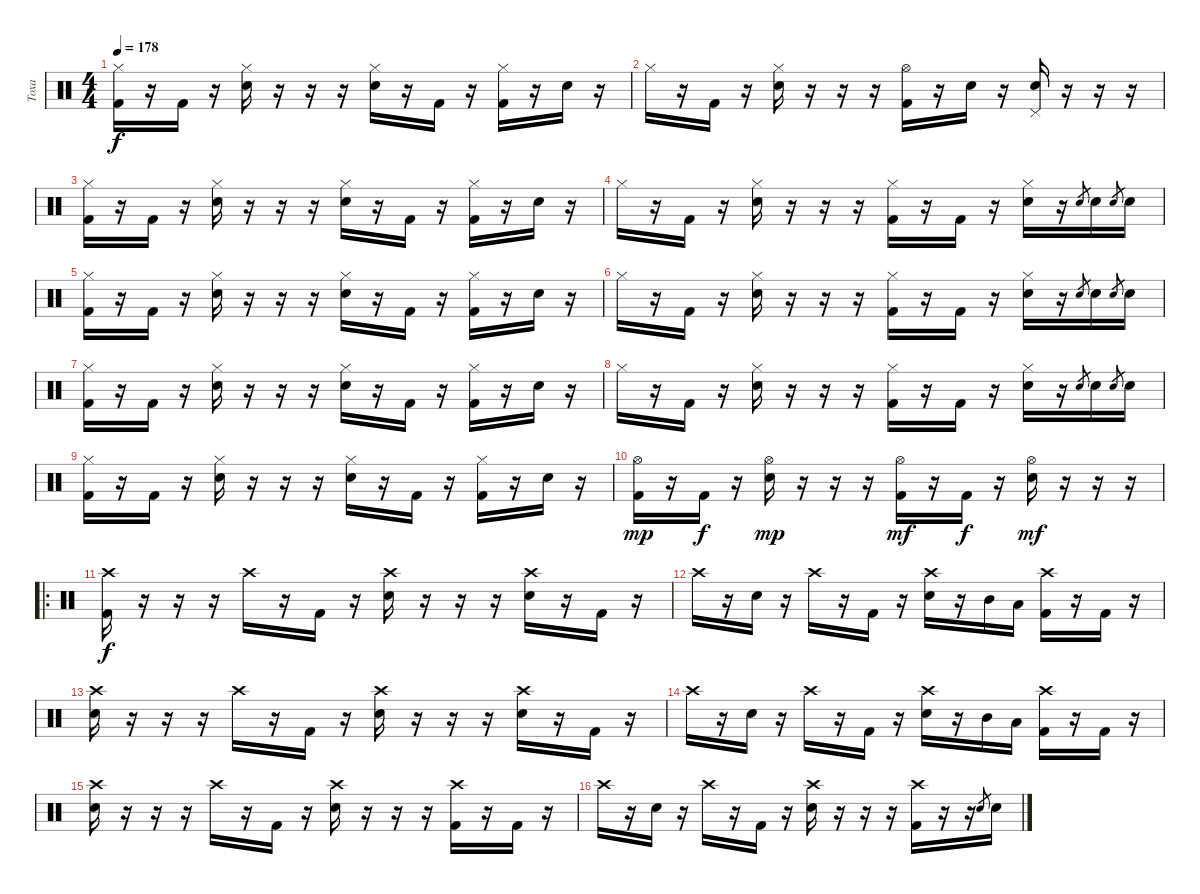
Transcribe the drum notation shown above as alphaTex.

\track ("Тоха" "Тоха") {instrument percussion}
\staff {score}
\articulation defaults
\ts (4 4)
\tempo 178
\clef neutral
\ks c
("Hi-Hat (closed)" "Kick (hit) 2").16{dy f} r.16 "Kick (hit) 2".16 r.16 ("Hi-Hat (closed)" "Electric Snare (hit)").16 r.16 r.16 r.16 ("Hi-Hat (closed)" "Electric Snare (hit)").16 r.16 "Kick (hit) 2".16 r.16 ("Hi-Hat (closed)" "Kick (hit) 2").16 r.16 "Electric Snare (hit)".16 r.16 |
"Hi-Hat (closed)".16 r.16 "Kick (hit) 2".16 r.16 ("Hi-Hat (closed)" "Electric Snare (hit)").16 r.16 r.16 r.16 ("Hi-Hat (open)" "Kick (hit) 2").16 r.16 "Electric Snare (hit)".16 r.16 ("Pedal Hi-Hat (hit)" "Electric Snare (hit)").16 r.16 r.16 r.16 |
("Hi-Hat (closed)" "Kick (hit) 2").16 r.16 "Kick (hit) 2".16 r.16 ("Hi-Hat (closed)" "Electric Snare (hit)").16 r.16 r.16 r.16 ("Hi-Hat (closed)" "Electric Snare (hit)").16 r.16 "Kick (hit) 2".16 r.16 ("Hi-Hat (closed)" "Kick (hit) 2").16 r.16 "Electric Snare (hit)".16 r.16 |
"Hi-Hat (closed)".16 r.16 "Kick (hit) 2".16 r.16 ("Hi-Hat (closed)" "Electric Snare (hit)").16 r.16 r.16 r.16 ("Hi-Hat (closed)" "Kick (hit) 2").16 r.16 "Kick (hit) 2".16 r.16 ("Hi-Hat (closed)" "Electric Snare (hit)").16 r.16 "Electric Snare (hit)".8{gr} "Electric Snare (hit)".16 "Electric Snare (hit)".8{gr} "Electric Snare (hit)".16 |
("Hi-Hat (closed)" "Kick (hit) 2").16 r.16 "Kick (hit) 2".16 r.16 ("Hi-Hat (closed)" "Electric Snare (hit)").16 r.16 r.16 r.16 ("Hi-Hat (closed)" "Electric Snare (hit)").16 r.16 "Kick (hit) 2".16 r.16 ("Hi-Hat (closed)" "Kick (hit) 2").16 r.16 "Electric Snare (hit)".16 r.16 |
"Hi-Hat (closed)".16 r.16 "Kick (hit) 2".16 r.16 ("Hi-Hat (closed)" "Electric Snare (hit)").16 r.16 r.16 r.16 ("Hi-Hat (closed)" "Kick (hit) 2").16 r.16 "Kick (hit) 2".16 r.16 ("Hi-Hat (closed)" "Electric Snare (hit)").16 r.16 "Electric Snare (hit)".8{gr} "Electric Snare (hit)".16 "Electric Snare (hit)".8{gr} "Electric Snare (hit)".16 |
("Hi-Hat (closed)" "Kick (hit) 2").16 r.16 "Kick (hit) 2".16 r.16 ("Hi-Hat (closed)" "Electric Snare (hit)").16 r.16 r.16 r.16 ("Hi-Hat (closed)" "Electric Snare (hit)").16 r.16 "Kick (hit) 2".16 r.16 ("Hi-Hat (closed)" "Kick (hit) 2").16 r.16 "Electric Snare (hit)".16 r.16 |
"Hi-Hat (closed)".16 r.16 "Kick (hit) 2".16 r.16 ("Hi-Hat (closed)" "Electric Snare (hit)").16 r.16 r.16 r.16 ("Hi-Hat (closed)" "Kick (hit) 2").16 r.16 "Kick (hit) 2".16 r.16 ("Hi-Hat (closed)" "Electric Snare (hit)").16 r.16 "Electric Snare (hit)".8{gr} "Electric Snare (hit)".16 "Electric Snare (hit)".8{gr} "Electric Snare (hit)".16 |
("Hi-Hat (closed)" "Kick (hit) 2").16 r.16 "Kick (hit) 2".16 r.16 ("Hi-Hat (closed)" "Electric Snare (hit)").16 r.16 r.16 r.16 ("Hi-Hat (closed)" "Electric Snare (hit)").16 r.16 "Kick (hit) 2".16 r.16 ("Hi-Hat (closed)" "Kick (hit) 2").16 r.16 "Electric Snare (hit)".16 r.16 |
("Hi-Hat (open)" "Kick (hit) 2").16{dy mp} r.16 "Kick (hit) 2".16{dy f} r.16 ("Hi-Hat (open)" "Electric Snare (hit)").16{dy mp} r.16 r.16 r.16 ("Hi-Hat (open)" "Kick (hit) 2").16{dy mf} r.16 "Kick (hit) 2".16{dy f} r.16 ("Hi-Hat (open)" "Electric Snare (hit)").16{dy mf} r.16 r.16 r.16 |
\ro
("Crash high (hit)" "Kick (hit) 2").16{dy f} r.16 r.16 r.16 "Crash high (hit)".16 r.16 "Kick (hit) 2".16 r.16 ("Crash high (hit)" "Electric Snare (hit)").16 r.16 r.16 r.16 ("Crash high (hit)" "Electric Snare (hit)").16 r.16 "Kick (hit) 2".16 r.16 |
"Crash high (hit)".16 r.16 "Electric Snare (hit)".16 r.16 "Crash high (hit)".16 r.16 "Kick (hit) 2".16 r.16 ("Crash high (hit)" "Electric Snare (hit)").16 r.16 "Mid Tom (hit)".16 "Low Tom (hit)".16 ("Crash high (hit)" "Kick (hit) 2").16 r.16 "Kick (hit) 2".16 r.16 |
("Crash high (hit)" "Electric Snare (hit)").16 r.16 r.16 r.16 "Crash high (hit)".16 r.16 "Kick (hit) 2".16 r.16 ("Crash high (hit)" "Electric Snare (hit)").16 r.16 r.16 r.16 ("Crash high (hit)" "Electric Snare (hit)").16 r.16 "Kick (hit) 2".16 r.16 |
"Crash high (hit)".16 r.16 "Electric Snare (hit)".16 r.16 "Crash high (hit)".16 r.16 "Kick (hit) 2".16 r.16 ("Crash high (hit)" "Electric Snare (hit)").16 r.16 "Mid Tom (hit)".16 "Low Tom (hit)".16 ("Crash high (hit)" "Kick (hit) 2").16 r.16 "Kick (hit) 2".16 r.16 |
("Crash high (hit)" "Electric Snare (hit)").16 r.16 r.16 r.16 "Crash high (hit)".16 r.16 "Kick (hit) 2".16 r.16 ("Crash high (hit)" "Electric Snare (hit)").16 r.16 r.16 r.16 ("Crash high (hit)" "Kick (hit) 2").16 r.16 "Kick (hit) 2".16 r.16 |
"Crash high (hit)".16 r.16 "Electric Snare (hit)".16 r.16 "Crash high (hit)".16 r.16 "Kick (hit) 2".16 r.16 ("Crash high (hit)" "Electric Snare (hit)").16 r.16 r.16 r.16 ("Crash high (hit)" "Kick (hit) 2").16 r.16 r.16 "Electric Snare (hit)".8{gr} "Electric Snare (hit)".16
